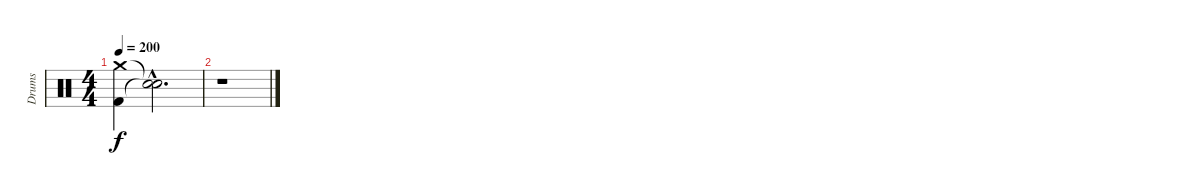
\track ("Drums" "Drums") {instrument percussion}
\staff {score}
\articulation defaults
\ts (4 4)
\tempo 200
\clef neutral
\ks c
("Crash medium (hit)" "Kick (hit) 2").4{dy f} ("Snare (hit)"{hac t} "Snare (hit)"{hac t}).2{d} |
r.1
